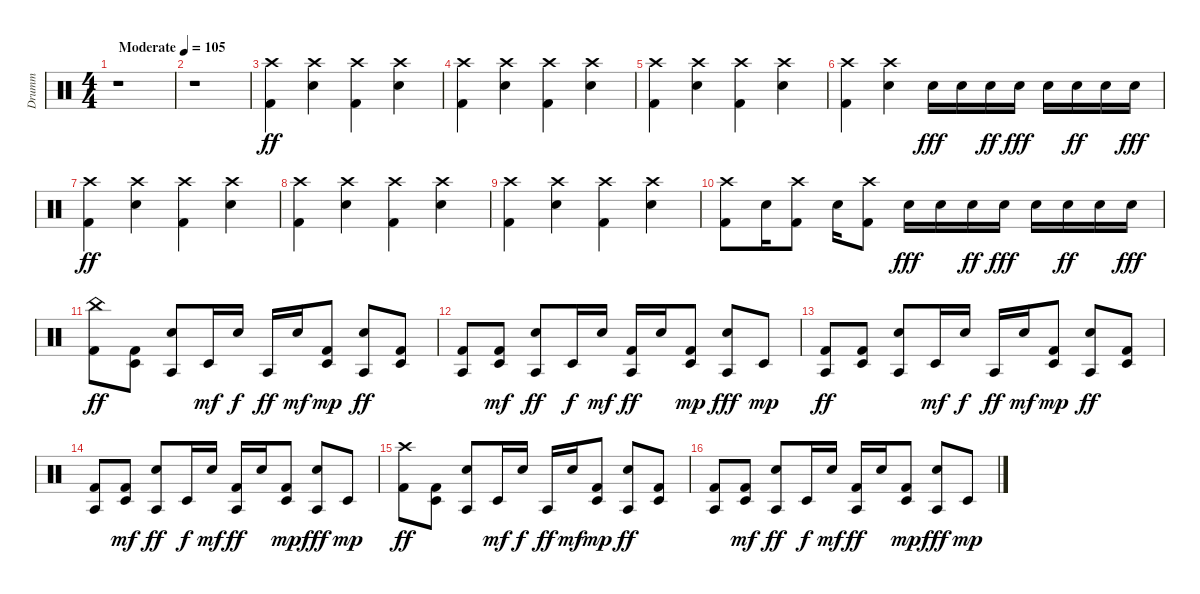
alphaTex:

\track ("Drumm" "Drumm") {instrument percussion}
\staff {score}
\articulation defaults
\ts (4 4)
\tempo (105 "Moderate")
\clef neutral
\ks c
r.1{dy ff} |
r.1 |
("Kick (hit) 2" "Crash high (hit)").4 ("Snare (hit) 2" "Crash high (hit)").4 ("Kick (hit) 2" "Crash high (hit)").4 ("Snare (hit) 2" "Crash high (hit)").4 |
("Kick (hit) 2" "Crash high (hit)").4 ("Snare (hit) 2" "Crash high (hit)").4 ("Kick (hit) 2" "Crash high (hit)").4 ("Snare (hit) 2" "Crash high (hit)").4 |
("Kick (hit) 2" "Crash high (hit)").4 ("Snare (hit) 2" "Crash high (hit)").4 ("Kick (hit) 2" "Crash high (hit)").4 ("Snare (hit) 2" "Crash high (hit)").4 |
("Kick (hit) 2" "Crash high (hit)").4 ("Snare (hit) 2" "Crash high (hit)").4 "Snare (hit) 2".16{dy fff} "Snare (hit) 2".16 "Snare (hit) 2".16{dy ff} "Snare (hit) 2".16{dy fff} "Snare (hit) 2".16 "Snare (hit) 2".16{dy ff} "Snare (hit) 2".16 "Snare (hit) 2".16{dy fff} |
("Kick (hit) 2" "Crash high (hit)").4{dy ff} ("Snare (hit) 2" "Crash high (hit)").4 ("Kick (hit) 2" "Crash high (hit)").4 ("Snare (hit) 2" "Crash high (hit)").4 |
("Kick (hit) 2" "Crash high (hit)").4 ("Snare (hit) 2" "Crash high (hit)").4 ("Kick (hit) 2" "Crash high (hit)").4 ("Snare (hit) 2" "Crash high (hit)").4 |
("Kick (hit) 2" "Crash high (hit)").4 ("Snare (hit) 2" "Crash high (hit)").4 ("Kick (hit) 2" "Crash high (hit)").4 ("Snare (hit) 2" "Crash high (hit)").4 |
("Kick (hit) 2" "Crash high (hit)").8 "Snare (hit) 2".16 ("Kick (hit) 2" "Crash high (hit)").8 "Snare (hit) 2".16 ("Kick (hit) 2" "Crash high (hit)").8 "Snare (hit) 2".16{dy fff} "Snare (hit) 2".16 "Snare (hit) 2".16{dy ff} "Snare (hit) 2".16{dy fff} "Snare (hit) 2".16 "Snare (hit) 2".16{dy ff} "Snare (hit) 2".16 "Snare (hit) 2".16{dy fff} |
("Kick (hit) 2" "China (hit)").8{dy ff} ("Kick (hit) 2" "Timbale low (hit)").8 ("Snare (hit) 2" "Agogo tow (hit)").8 "Timbale low (hit)".16{dy mf} "Snare (hit) 2".16{dy f} "Agogo tow (hit)".16{dy ff} "Snare (hit) 2".16{dy mf} ("Kick (hit) 2" "Timbale low (hit)").8{dy mp} ("Snare (hit) 2" "Agogo tow (hit)").8{dy ff} ("Kick (hit) 2" "Timbale low (hit)").8 |
("Kick (hit) 2" "Agogo tow (hit)").8 ("Kick (hit) 2" "Timbale low (hit)").8{dy mf} ("Snare (hit) 2" "Agogo tow (hit)").8{dy ff} "Timbale low (hit)".16{dy f} "Snare (hit) 2".16{dy mf} ("Kick (hit) 2" "Agogo tow (hit)").16{dy ff} "Snare (hit) 2".16 ("Kick (hit) 2" "Timbale low (hit)").8{dy mp} ("Snare (hit) 2" "Agogo tow (hit)").8{dy fff} "Timbale low (hit)".8{dy mp} |
("Kick (hit) 2" "Agogo tow (hit)").8{dy ff} ("Kick (hit) 2" "Timbale low (hit)").8 ("Snare (hit) 2" "Agogo tow (hit)").8 "Timbale low (hit)".16{dy mf} "Snare (hit) 2".16{dy f} "Agogo tow (hit)".16{dy ff} "Snare (hit) 2".16{dy mf} ("Kick (hit) 2" "Timbale low (hit)").8{dy mp} ("Snare (hit) 2" "Agogo tow (hit)").8{dy ff} ("Kick (hit) 2" "Timbale low (hit)").8 |
("Kick (hit) 2" "Agogo tow (hit)").8 ("Kick (hit) 2" "Timbale low (hit)").8{dy mf} ("Snare (hit) 2" "Agogo tow (hit)").8{dy ff} "Timbale low (hit)".16{dy f} "Snare (hit) 2".16{dy mf} ("Kick (hit) 2" "Agogo tow (hit)").16{dy ff} "Snare (hit) 2".16 ("Kick (hit) 2" "Timbale low (hit)").8{dy mp} ("Snare (hit) 2" "Agogo tow (hit)").8{dy fff} "Timbale low (hit)".8{dy mp} |
("Kick (hit) 2" "Crash high (hit)").8{dy ff} ("Kick (hit) 2" "Timbale low (hit)").8 ("Snare (hit) 2" "Agogo tow (hit)").8 "Timbale low (hit)".16{dy mf} "Snare (hit) 2".16{dy f} "Agogo tow (hit)".16{dy ff} "Snare (hit) 2".16{dy mf} ("Kick (hit) 2" "Timbale low (hit)").8{dy mp} ("Snare (hit) 2" "Agogo tow (hit)").8{dy ff} ("Kick (hit) 2" "Timbale low (hit)").8 |
("Kick (hit) 2" "Agogo tow (hit)").8 ("Kick (hit) 2" "Timbale low (hit)").8{dy mf} ("Snare (hit) 2" "Agogo tow (hit)").8{dy ff} "Timbale low (hit)".16{dy f} "Snare (hit) 2".16{dy mf} ("Kick (hit) 2" "Agogo tow (hit)").16{dy ff} "Snare (hit) 2".16 ("Kick (hit) 2" "Timbale low (hit)").8{dy mp} ("Snare (hit) 2" "Agogo tow (hit)").8{dy fff} "Timbale low (hit)".8{dy mp}
